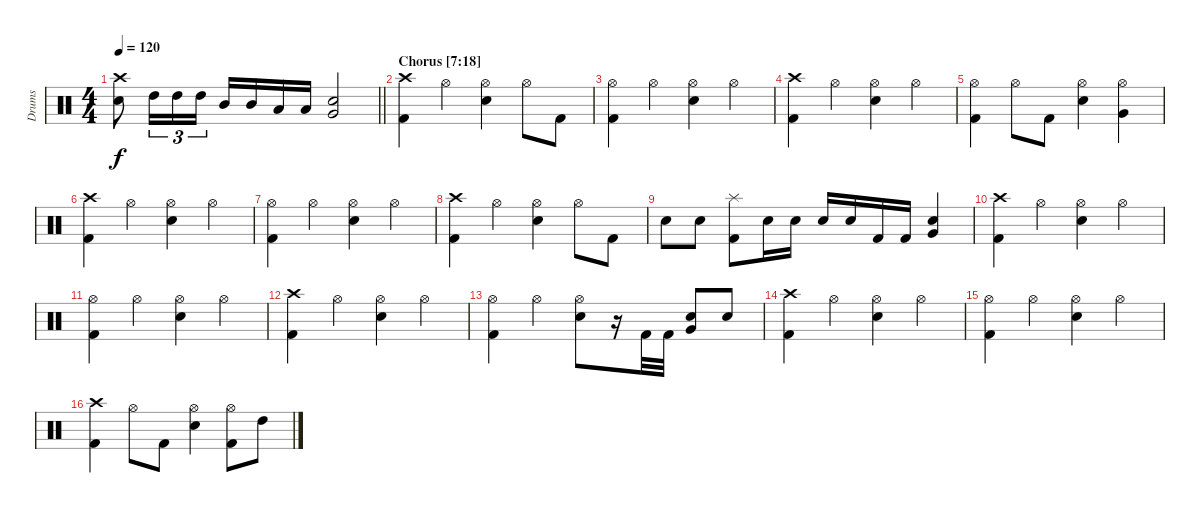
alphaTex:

\track ("Drums" "Drums") {instrument percussion}
\staff {score}
\articulation defaults
\ts (4 4)
\tempo 120
\clef neutral
\barLineRight lightlight
\ks c
("Crash high (hit)" "Snare (hit) 2").8{dy f} "High Tom (hit)".16{tu (3 2)} "High Tom (hit)".16{tu (3 2)} "High Tom (hit)".16{tu (3 2)} "Mid Tom (hit)".16 "Mid Tom (hit)".16 "Low Tom (hit)".16 "Low Tom (hit)".16 ("Very Low Tom (hit)" "Snare (hit) 2").2 |
\section ("" "Chorus [7:18]")
("Crash high (hit)" "Kick (hit) 2").4 "Hi-Hat (open)".4 ("Hi-Hat (open)" "Snare (hit) 2").4 "Hi-Hat (open)".8 "Kick (hit) 2".8 |
("Hi-Hat (open)" "Kick (hit) 2").4 "Hi-Hat (open)".4 ("Hi-Hat (open)" "Snare (hit) 2").4 "Hi-Hat (open)".4 |
("Crash high (hit)" "Kick (hit) 2").4 "Hi-Hat (open)".4 ("Hi-Hat (open)" "Snare (hit) 2").4 "Hi-Hat (open)".4 |
("Hi-Hat (open)" "Kick (hit) 2").4 "Hi-Hat (open)".8 "Kick (hit) 2".8 ("Hi-Hat (open)" "Snare (hit) 2").4 ("Hi-Hat (open)" "Very Low Tom (hit)").4 |
("Crash high (hit)" "Kick (hit) 2").4 "Hi-Hat (open)".4 ("Hi-Hat (open)" "Snare (hit) 2").4 "Hi-Hat (open)".4 |
("Hi-Hat (open)" "Kick (hit) 2").4 "Hi-Hat (open)".4 ("Hi-Hat (open)" "Snare (hit) 2").4 "Hi-Hat (open)".4 |
("Crash high (hit)" "Kick (hit) 2").4 "Hi-Hat (open)".4 ("Hi-Hat (open)" "Snare (hit) 2").4 "Hi-Hat (open)".8 "Kick (hit) 2".8 |
"Snare (hit) 2".8 "Snare (hit) 2".8 ("Splash (hit)" "Kick (hit) 2").8 "Snare (hit) 2".16 "Snare (hit) 2".16 "Snare (hit) 2".16 "Snare (hit) 2".16 "Kick (hit) 2".16 "Kick (hit) 2".16 ("Very Low Tom (hit)" "Snare (hit) 2").4 |
("Crash high (hit)" "Kick (hit) 2").4 "Hi-Hat (open)".4 ("Hi-Hat (open)" "Snare (hit) 2").4 "Hi-Hat (open)".4 |
("Hi-Hat (open)" "Kick (hit) 2").4 "Hi-Hat (open)".4 ("Hi-Hat (open)" "Snare (hit) 2").4 "Hi-Hat (open)".4 |
("Crash high (hit)" "Kick (hit) 2").4 "Hi-Hat (open)".4 ("Hi-Hat (open)" "Snare (hit) 2").4 "Hi-Hat (open)".4 |
("Hi-Hat (open)" "Kick (hit) 2").4 "Hi-Hat (open)".4 ("Hi-Hat (open)" "Snare (hit) 2").8 r.16 "Kick (hit) 2".32 "Kick (hit) 2".32 ("Very Low Tom (hit)" "Snare (hit) 2").8 "Snare (hit) 2".8 |
("Crash high (hit)" "Kick (hit) 2").4 "Hi-Hat (open)".4 ("Hi-Hat (open)" "Snare (hit) 2").4 "Hi-Hat (open)".4 |
("Hi-Hat (open)" "Kick (hit) 2").4 "Hi-Hat (open)".4 ("Hi-Hat (open)" "Snare (hit) 2").4 "Hi-Hat (open)".4 |
("Crash high (hit)" "Kick (hit) 2").4 "Hi-Hat (open)".8 "Kick (hit) 2".8 ("Hi-Hat (open)" "Snare (hit) 2").4 ("Hi-Hat (open)" "Kick (hit) 2").8 "High Tom (hit)".8
